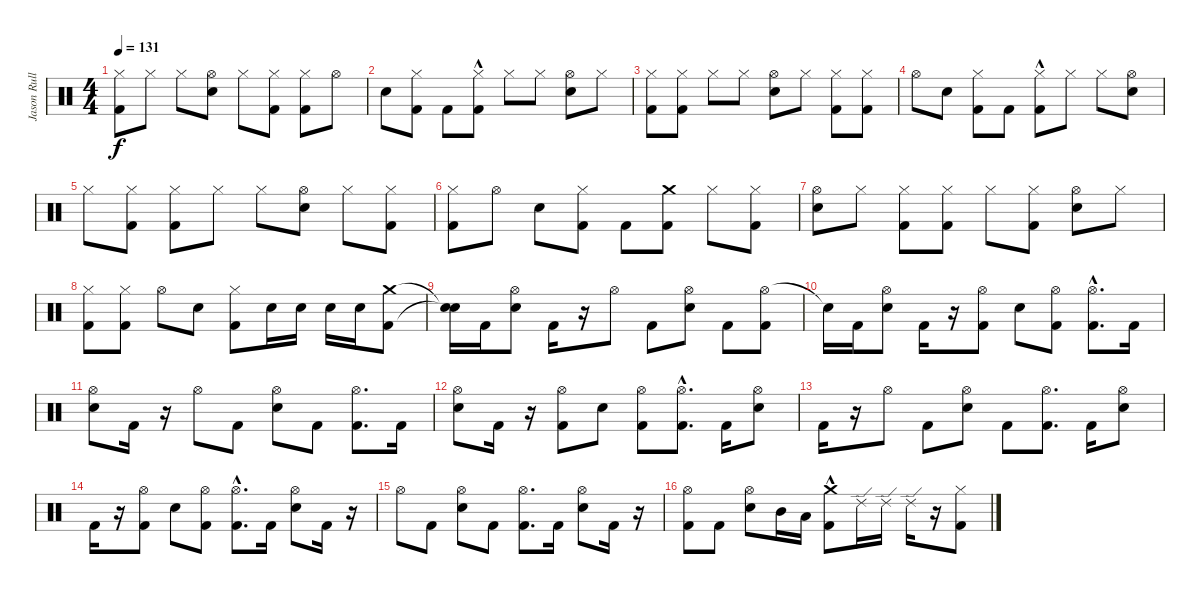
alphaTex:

\track ("Jason Rullo (Drums)" "Jason Rull") {instrument percussion}
\staff {score}
\articulation defaults
\ts (4 4)
\tempo 131
\clef neutral
\ks c
("Hi-Hat (closed)" "Kick (hit) 2").8{dy f} "Hi-Hat (closed)".8 "Hi-Hat (closed)".8 ("Hi-Hat (open)" "Electric Snare (hit)").8 "Hi-Hat (closed)".8 ("Hi-Hat (closed)" "Kick (hit) 2").8 ("Hi-Hat (closed)" "Kick (hit) 2").8 "Hi-Hat (open)".8 |
"Electric Snare (hit)".8 ("Hi-Hat (closed)" "Kick (hit) 2").8 "Kick (hit) 2".8 ("Hi-Hat (closed)" "Kick (hit) 2"{hac}).8 "Hi-Hat (closed)".8 "Hi-Hat (closed)".8 ("Hi-Hat (open)" "Electric Snare (hit)").8 "Hi-Hat (closed)".8 |
("Hi-Hat (closed)" "Kick (hit) 2").8 ("Hi-Hat (closed)" "Kick (hit) 2").8 "Hi-Hat (closed)".8 "Hi-Hat (closed)".8 ("Hi-Hat (open)" "Electric Snare (hit)").8 "Hi-Hat (closed)".8 ("Hi-Hat (closed)" "Kick (hit) 2").8 ("Hi-Hat (closed)" "Kick (hit) 2").8 |
"Hi-Hat (open)".8 "Electric Snare (hit)".8 ("Hi-Hat (closed)" "Kick (hit) 2").8 "Kick (hit) 2".8 ("Hi-Hat (closed)" "Kick (hit) 2"{hac}).8 "Hi-Hat (closed)".8 "Hi-Hat (closed)".8 ("Hi-Hat (open)" "Electric Snare (hit)").8 |
"Hi-Hat (closed)".8 ("Hi-Hat (closed)" "Kick (hit) 2").8 ("Hi-Hat (closed)" "Kick (hit) 2").8 "Hi-Hat (closed)".8 "Hi-Hat (closed)".8 ("Hi-Hat (open)" "Electric Snare (hit)").8 "Hi-Hat (closed)".8 ("Hi-Hat (closed)" "Kick (hit) 2").8 |
("Hi-Hat (closed)" "Kick (hit) 2").8 "Hi-Hat (open)".8 "Electric Snare (hit)".8 ("Hi-Hat (closed)" "Kick (hit) 2").8 "Kick (hit) 2".8 ("Crash medium (hit)" "Kick (hit) 2").8 "Hi-Hat (closed)".8 ("Kick (hit) 2" "Hi-Hat (closed)").8 |
("Hi-Hat (open)" "Electric Snare (hit)").8 "Hi-Hat (closed)".8 ("Hi-Hat (closed)" "Kick (hit) 2").8 ("Hi-Hat (closed)" "Kick (hit) 2").8 "Hi-Hat (closed)".8 ("Kick (hit) 2" "Hi-Hat (closed)").8 ("Hi-Hat (open)" "Electric Snare (hit)").8 "Hi-Hat (closed)".8 |
("Hi-Hat (closed)" "Kick (hit) 2").8 ("Hi-Hat (closed)" "Kick (hit) 2").8 "Hi-Hat (open)".8 "Electric Snare (hit)".8 ("Hi-Hat (closed)" "Kick (hit) 2").8 "Electric Snare (hit)".16 "Electric Snare (hit)".16 "Electric Snare (hit)".16 "Electric Snare (hit)".16 ("Crash medium (hit)" "Kick (hit) 2").8 |
("Snare (hit)"{t} "Snare (hit)"{t}).16 "Kick (hit) 2".16 ("Hi-Hat (open)" "Electric Snare (hit)").8 "Kick (hit) 2".16 r.16 "Hi-Hat (open)".8 "Kick (hit) 2".8 ("Hi-Hat (open)" "Electric Snare (hit)").8 "Kick (hit) 2".8 ("Hi-Hat (open)" "Kick (hit) 2").8 |
"Snare (hit)"{t}.16 "Kick (hit) 2".16 ("Electric Snare (hit)" "Hi-Hat (open)").8 "Kick (hit) 2".16 r.16 ("Kick (hit) 2" "Hi-Hat (open)").8 "Electric Snare (hit)".8 ("Kick (hit) 2" "Hi-Hat (open)").8 ("Hi-Hat (open)" "Kick (hit) 2"{hac}).8{d} "Kick (hit) 2".16 |
("Hi-Hat (open)" "Electric Snare (hit)").8 "Kick (hit) 2".16 r.16 "Hi-Hat (open)".8 "Kick (hit) 2".8 ("Hi-Hat (open)" "Electric Snare (hit)").8 "Kick (hit) 2".8 ("Hi-Hat (open)" "Kick (hit) 2").8{d} "Kick (hit) 2".16 |
("Electric Snare (hit)" "Hi-Hat (open)").8 "Kick (hit) 2".16 r.16 ("Kick (hit) 2" "Hi-Hat (open)").8 "Electric Snare (hit)".8 ("Kick (hit) 2" "Hi-Hat (open)").8 ("Hi-Hat (open)" "Kick (hit) 2"{hac}).8{d} "Kick (hit) 2".16 ("Hi-Hat (open)" "Electric Snare (hit)").8 |
"Kick (hit) 2".16 r.16 "Hi-Hat (open)".8 "Kick (hit) 2".8 ("Hi-Hat (open)" "Electric Snare (hit)").8 "Kick (hit) 2".8 ("Hi-Hat (open)" "Kick (hit) 2").8{d} "Kick (hit) 2".16 ("Electric Snare (hit)" "Hi-Hat (open)").8 |
"Kick (hit) 2".16 r.16 ("Kick (hit) 2" "Hi-Hat (open)").8 "Electric Snare (hit)".8 ("Kick (hit) 2" "Hi-Hat (open)").8 ("Hi-Hat (open)" "Kick (hit) 2"{hac}).8{d} "Kick (hit) 2".16 ("Hi-Hat (open)" "Electric Snare (hit)").8 "Kick (hit) 2".16 r.16 |
"Hi-Hat (open)".8 "Kick (hit) 2".8 ("Hi-Hat (open)" "Electric Snare (hit)").8 "Kick (hit) 2".8 ("Hi-Hat (open)" "Kick (hit) 2").8{d} "Kick (hit) 2".16 ("Electric Snare (hit)" "Hi-Hat (open)").8 "Kick (hit) 2".16 r.16 |
("Kick (hit) 2" "Hi-Hat (open)").8 "Kick (hit) 2".8 ("Electric Snare (hit)" "Hi-Hat (open)").8 "Mid Tom (hit)".16 "Low Tom (hit)".16 ("Crash medium (hit)" "Kick (hit) 2"{hac}).8 "Ride (edge) 2".16 "Ride (edge) 2".16 "Ride (edge) 2".16 r.16 ("Hi-Hat (closed)" "Kick (hit) 2").8
